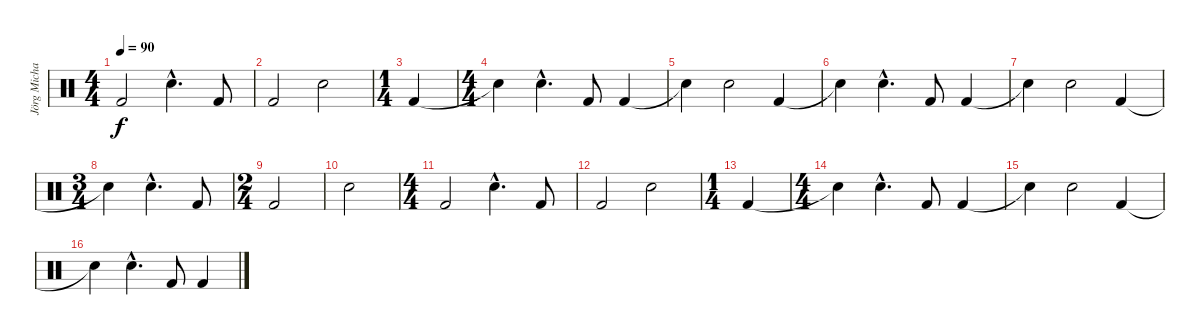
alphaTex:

\track ("Jörg Michael Drums" "Jörg Micha") {instrument percussion}
\staff {score}
\articulation defaults
\ts (4 4)
\tempo 90
\clef neutral
\ks c "Kick (hit) 2".2{dy f} "Electric Snare (hit)"{hac}.4{d} "Kick (hit) 2".8
|
"Kick (hit) 2".2 "Electric Snare (hit)".2 |
\ts (1 4)
"Kick (hit) 2".4 |
\ts (4 4)
"Snare (hit)"{t}.4 "Electric Snare (hit)"{hac}.4{d} "Kick (hit) 2".8 "Kick (hit) 2".4 |
"Snare (hit)"{t}.4 "Electric Snare (hit)".2 "Kick (hit) 2".4 |
"Snare (hit)"{t}.4 "Electric Snare (hit)"{hac}.4{d} "Kick (hit) 2".8 "Kick (hit) 2".4 |
"Snare (hit)"{t}.4 "Electric Snare (hit)".2 "Kick (hit) 2".4 |
\ts (3 4)
"Electric Snare (hit)"{t}.4 "Electric Snare (hit)"{hac}.4{d} "Kick (hit) 2".8 |
\ts (2 4)
"Kick (hit) 2".2 |
"Electric Snare (hit)".2 |
\ts (4 4)
"Kick (hit) 2".2 "Electric Snare (hit)"{hac}.4{d} "Kick (hit) 2".8 |
"Kick (hit) 2".2 "Electric Snare (hit)".2 |
\ts (1 4)
"Kick (hit) 2".4 |
\ts (4 4)
"Snare (hit)"{t}.4 "Electric Snare (hit)"{hac}.4{d} "Kick (hit) 2".8 "Kick (hit) 2".4 |
"Snare (hit)"{t}.4 "Electric Snare (hit)".2 "Kick (hit) 2".4 |
"Snare (hit)"{t}.4 "Electric Snare (hit)"{hac}.4{d} "Kick (hit) 2".8 "Kick (hit) 2".4
